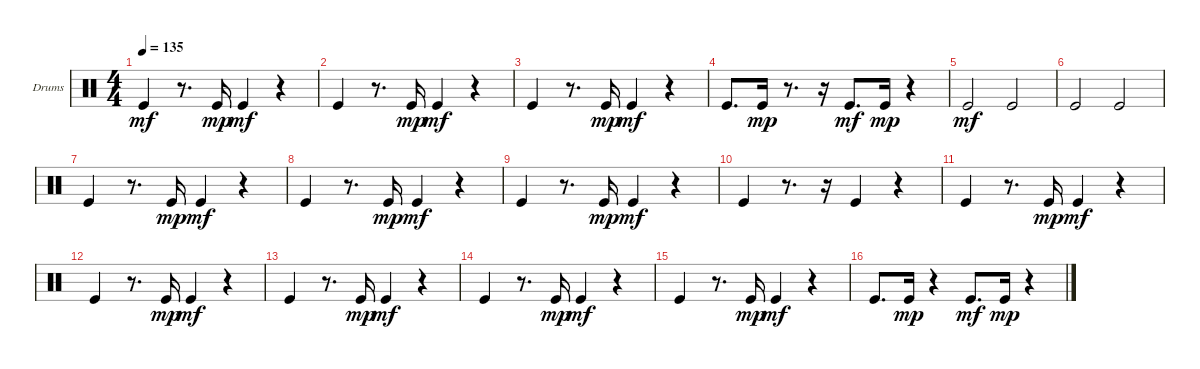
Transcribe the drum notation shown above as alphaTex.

\bracketExtendMode groupsimilarinstruments
\firstSystemTrackNameOrientation horizontal
\otherSystemsTrackNameOrientation horizontal
\track ("Kick" "Drums") {instrument percussion}
\staff {score}
\articulation defaults
\ts (4 4)
\tempo 135
\clef neutral
\ks c "Kick (hit)".4{dy mf}
r.8{d} "Kick (hit)".16{dy mp} "Kick (hit)".4{dy mf} r.4 |
"Kick (hit)".4 r.8{d} "Kick (hit)".16{dy mp} "Kick (hit)".4{dy mf} r.4 |
"Kick (hit)".4 r.8{d} "Kick (hit)".16{dy mp} "Kick (hit)".4{dy mf} r.4 |
"Kick (hit)".8{d} "Kick (hit)".16{dy mp} r.8{d} r.16 "Kick (hit)".8{d dy mf} "Kick (hit)".16{dy mp} r.4 |
"Kick (hit)".2{dy mf} "Kick (hit)".2 |
"Kick (hit)".2 "Kick (hit)".2 |
"Kick (hit)".4 r.8{d} "Kick (hit)".16{dy mp} "Kick (hit)".4{dy mf} r.4 |
"Kick (hit)".4 r.8{d} "Kick (hit)".16{dy mp} "Kick (hit)".4{dy mf} r.4 |
"Kick (hit)".4 r.8{d} "Kick (hit)".16{dy mp} "Kick (hit)".4{dy mf} r.4 |
"Kick (hit)".4 r.8{d} r.16 "Kick (hit)".4 r.4 |
"Kick (hit)".4 r.8{d} "Kick (hit)".16{dy mp} "Kick (hit)".4{dy mf} r.4 |
"Kick (hit)".4 r.8{d} "Kick (hit)".16{dy mp} "Kick (hit)".4{dy mf} r.4 |
"Kick (hit)".4 r.8{d} "Kick (hit)".16{dy mp} "Kick (hit)".4{dy mf} r.4 |
"Kick (hit)".4 r.8{d} "Kick (hit)".16{dy mp} "Kick (hit)".4{dy mf} r.4 |
"Kick (hit)".4 r.8{d} "Kick (hit)".16{dy mp} "Kick (hit)".4{dy mf} r.4 |
"Kick (hit)".8{d} "Kick (hit)".16{dy mp} r.4 "Kick (hit)".8{d dy mf} "Kick (hit)".16{dy mp} r.4
